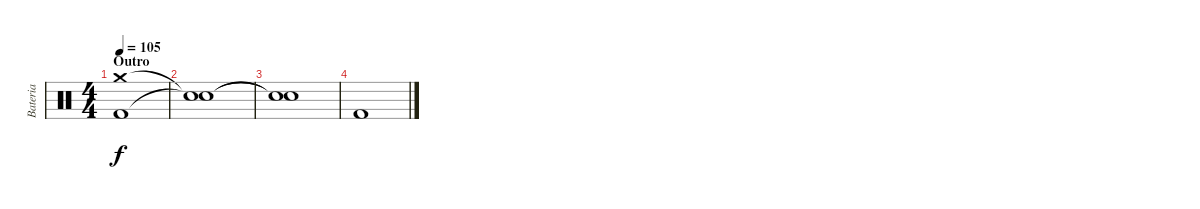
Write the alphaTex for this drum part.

\track ("Bateria" "Bateria") {instrument percussion}
\staff {score}
\articulation defaults
\ts (4 4)
\section ("" "Outro")
\tempo 105
\clef neutral
\ks c
("Crash medium (hit)" "Kick (hit) 2").1{dy f} |
("Snare (hit)"{t} "Snare (hit)"{t}).1 |
("Snare (hit)"{t} "Snare (hit)"{t}).1 |
"Kick (hit) 2".1
